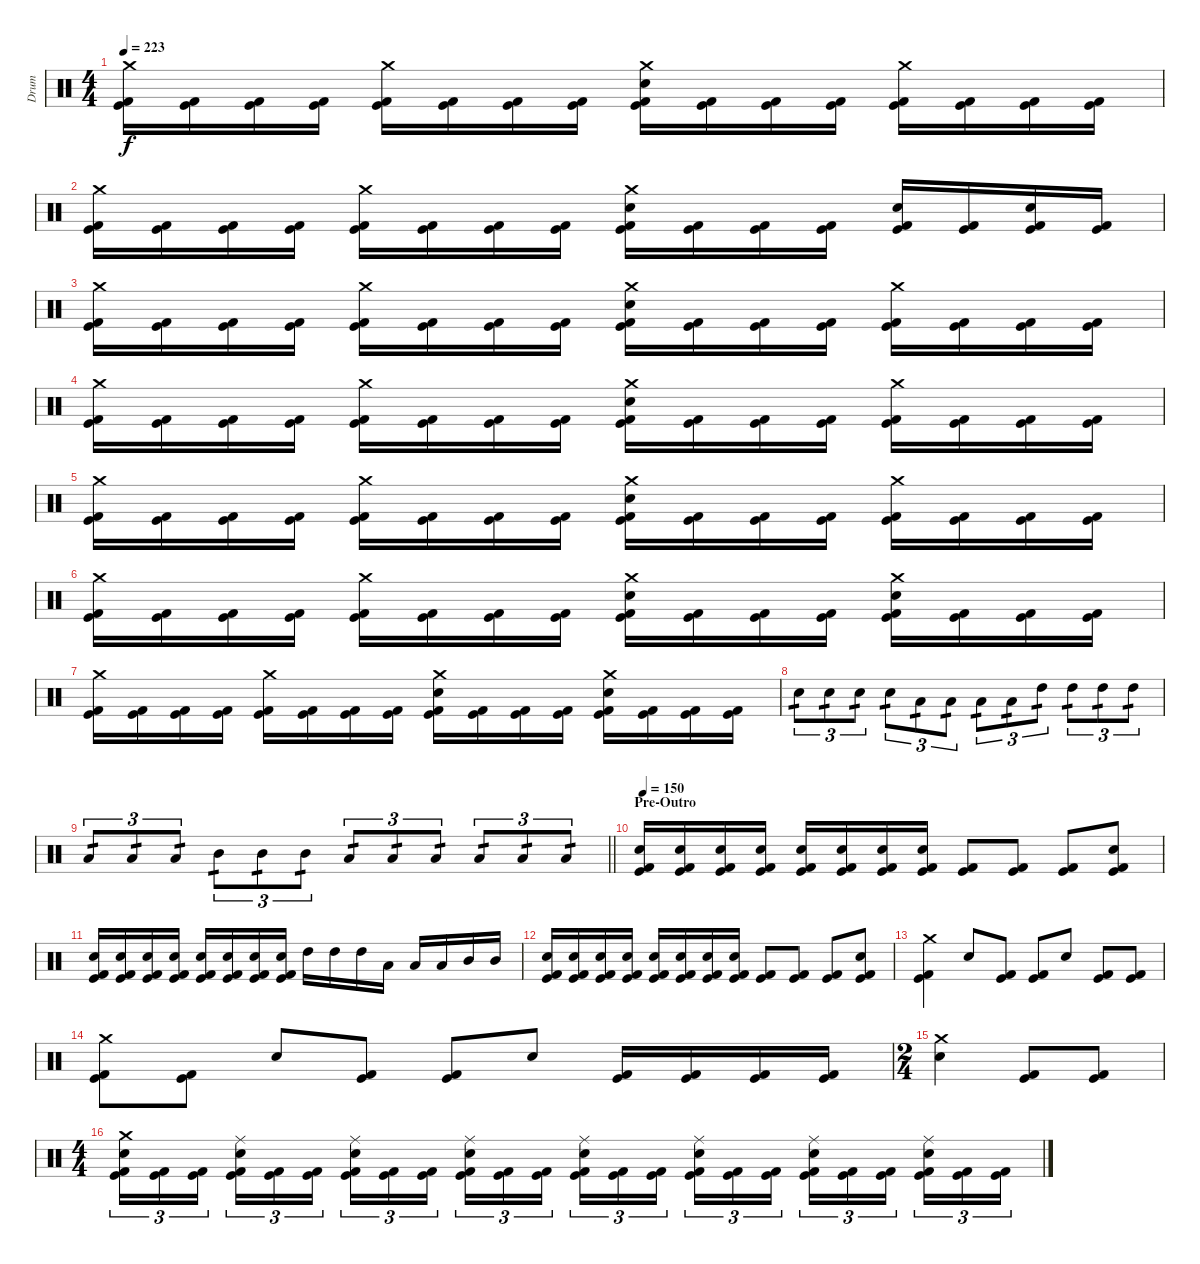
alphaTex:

\track ("Drum" "Drum") {instrument percussion}
\staff {score}
\articulation defaults
\ts (4 4)
\tempo 223
\clef neutral
\ks c
("Crash medium (hit)" "Kick (hit)" "Kick (hit) 2").16{dy f} ("Kick (hit)" "Kick (hit) 2").16 ("Kick (hit)" "Kick (hit) 2").16 ("Kick (hit)" "Kick (hit) 2").16 ("Crash medium (hit)" "Kick (hit)" "Kick (hit) 2").16 ("Kick (hit)" "Kick (hit) 2").16 ("Kick (hit)" "Kick (hit) 2").16 ("Kick (hit)" "Kick (hit) 2").16 ("Crash medium (hit)" "Electric Snare (hit)" "Kick (hit)" "Kick (hit) 2").16 ("Kick (hit)" "Kick (hit) 2").16 ("Kick (hit)" "Kick (hit) 2").16 ("Kick (hit)" "Kick (hit) 2").16 ("Crash medium (hit)" "Kick (hit)" "Kick (hit) 2").16 ("Kick (hit)" "Kick (hit) 2").16 ("Kick (hit)" "Kick (hit) 2").16 ("Kick (hit)" "Kick (hit) 2").16 |
("Crash medium (hit)" "Kick (hit)" "Kick (hit) 2").16 ("Kick (hit)" "Kick (hit) 2").16 ("Kick (hit)" "Kick (hit) 2").16 ("Kick (hit)" "Kick (hit) 2").16 ("Crash medium (hit)" "Kick (hit)" "Kick (hit) 2").16 ("Kick (hit)" "Kick (hit) 2").16 ("Kick (hit)" "Kick (hit) 2").16 ("Kick (hit)" "Kick (hit) 2").16 ("Crash medium (hit)" "Electric Snare (hit)" "Kick (hit)" "Kick (hit) 2").16 ("Kick (hit)" "Kick (hit) 2").16 ("Kick (hit)" "Kick (hit) 2").16 ("Kick (hit)" "Kick (hit) 2").16 ("Electric Snare (hit)" "Kick (hit)" "Kick (hit) 2").16 ("Kick (hit)" "Kick (hit) 2").16 ("Electric Snare (hit)" "Kick (hit)" "Kick (hit) 2").16 ("Kick (hit)" "Kick (hit) 2").16 |
("Crash medium (hit)" "Kick (hit)" "Kick (hit) 2").16 ("Kick (hit)" "Kick (hit) 2").16 ("Kick (hit)" "Kick (hit) 2").16 ("Kick (hit)" "Kick (hit) 2").16 ("Crash medium (hit)" "Kick (hit)" "Kick (hit) 2").16 ("Kick (hit)" "Kick (hit) 2").16 ("Kick (hit)" "Kick (hit) 2").16 ("Kick (hit)" "Kick (hit) 2").16 ("Crash medium (hit)" "Electric Snare (hit)" "Kick (hit)" "Kick (hit) 2").16 ("Kick (hit)" "Kick (hit) 2").16 ("Kick (hit)" "Kick (hit) 2").16 ("Kick (hit)" "Kick (hit) 2").16 ("Crash medium (hit)" "Kick (hit)" "Kick (hit) 2").16 ("Kick (hit)" "Kick (hit) 2").16 ("Kick (hit)" "Kick (hit) 2").16 ("Kick (hit)" "Kick (hit) 2").16 |
("Crash medium (hit)" "Kick (hit)" "Kick (hit) 2").16 ("Kick (hit)" "Kick (hit) 2").16 ("Kick (hit)" "Kick (hit) 2").16 ("Kick (hit)" "Kick (hit) 2").16 ("Crash medium (hit)" "Kick (hit)" "Kick (hit) 2").16 ("Kick (hit)" "Kick (hit) 2").16 ("Kick (hit)" "Kick (hit) 2").16 ("Kick (hit)" "Kick (hit) 2").16 ("Crash medium (hit)" "Electric Snare (hit)" "Kick (hit)" "Kick (hit) 2").16 ("Kick (hit)" "Kick (hit) 2").16 ("Kick (hit)" "Kick (hit) 2").16 ("Kick (hit)" "Kick (hit) 2").16 ("Crash medium (hit)" "Kick (hit)" "Kick (hit) 2").16 ("Kick (hit)" "Kick (hit) 2").16 ("Kick (hit)" "Kick (hit) 2").16 ("Kick (hit)" "Kick (hit) 2").16 |
("Crash medium (hit)" "Kick (hit)" "Kick (hit) 2").16 ("Kick (hit)" "Kick (hit) 2").16 ("Kick (hit)" "Kick (hit) 2").16 ("Kick (hit)" "Kick (hit) 2").16 ("Crash medium (hit)" "Kick (hit)" "Kick (hit) 2").16 ("Kick (hit)" "Kick (hit) 2").16 ("Kick (hit)" "Kick (hit) 2").16 ("Kick (hit)" "Kick (hit) 2").16 ("Crash medium (hit)" "Electric Snare (hit)" "Kick (hit)" "Kick (hit) 2").16 ("Kick (hit)" "Kick (hit) 2").16 ("Kick (hit)" "Kick (hit) 2").16 ("Kick (hit)" "Kick (hit) 2").16 ("Crash medium (hit)" "Kick (hit)" "Kick (hit) 2").16 ("Kick (hit)" "Kick (hit) 2").16 ("Kick (hit)" "Kick (hit) 2").16 ("Kick (hit)" "Kick (hit) 2").16 |
("Crash medium (hit)" "Kick (hit)" "Kick (hit) 2").16 ("Kick (hit)" "Kick (hit) 2").16 ("Kick (hit)" "Kick (hit) 2").16 ("Kick (hit)" "Kick (hit) 2").16 ("Crash medium (hit)" "Kick (hit)" "Kick (hit) 2").16 ("Kick (hit)" "Kick (hit) 2").16 ("Kick (hit)" "Kick (hit) 2").16 ("Kick (hit)" "Kick (hit) 2").16 ("Crash medium (hit)" "Electric Snare (hit)" "Kick (hit)" "Kick (hit) 2").16 ("Kick (hit)" "Kick (hit) 2").16 ("Kick (hit)" "Kick (hit) 2").16 ("Kick (hit)" "Kick (hit) 2").16 ("Crash medium (hit)" "Electric Snare (hit)" "Kick (hit)" "Kick (hit) 2").16 ("Kick (hit)" "Kick (hit) 2").16 ("Kick (hit)" "Kick (hit) 2").16 ("Kick (hit)" "Kick (hit) 2").16 |
("Crash medium (hit)" "Kick (hit)" "Kick (hit) 2").16 ("Kick (hit)" "Kick (hit) 2").16 ("Kick (hit)" "Kick (hit) 2").16 ("Kick (hit)" "Kick (hit) 2").16 ("Crash medium (hit)" "Kick (hit)" "Kick (hit) 2").16 ("Kick (hit)" "Kick (hit) 2").16 ("Kick (hit)" "Kick (hit) 2").16 ("Kick (hit)" "Kick (hit) 2").16 ("Crash medium (hit)" "Electric Snare (hit)" "Kick (hit)" "Kick (hit) 2").16 ("Kick (hit)" "Kick (hit) 2").16 ("Kick (hit)" "Kick (hit) 2").16 ("Kick (hit)" "Kick (hit) 2").16 ("Crash medium (hit)" "Electric Snare (hit)" "Kick (hit)" "Kick (hit) 2").16 ("Kick (hit)" "Kick (hit) 2").16 ("Kick (hit)" "Kick (hit) 2").16 ("Kick (hit)" "Kick (hit) 2").16 |
"Electric Snare (hit)".8{tu (3 2) tp 1} "Electric Snare (hit)".8{tu (3 2) tp 1} "Electric Snare (hit)".8{tu (3 2) tp 1} "Electric Snare (hit)".8{tu (3 2) tp 1} "Low Tom (hit)".8{tu (3 2) tp 1} "Low Tom (hit)".8{tu (3 2) tp 1} "Low Tom (hit)".8{tu (3 2) tp 1} "Low Tom (hit)".8{tu (3 2) tp 1} "High Tom (hit)".8{tu (3 2) tp 1} "High Tom (hit)".8{tu (3 2) tp 1} "High Tom (hit)".8{tu (3 2) tp 1} "High Tom (hit)".8{tu (3 2) tp 1} |
\barLineRight lightlight "Low Tom (hit)".8{tu (3 2) tp 1} "Low Tom (hit)".8{tu (3 2) tp 1} "Low Tom (hit)".8{tu (3 2) tp 1} "Mid Tom (hit)".8{tu (3 2) tp 1} "Mid Tom (hit)".8{tu (3 2) tp 1} "Mid Tom (hit)".8{tu (3 2) tp 1} "Low Tom (hit)".8{tu (3 2) tp 1} "Low Tom (hit)".8{tu (3 2) tp 1} "Low Tom (hit)".8{tu (3 2) tp 1} "Low Tom (hit)".8{tu (3 2) tp 1} "Low Tom (hit)".8{tu (3 2) tp 1} "Low Tom (hit)".8{tu (3 2) tp 1}
|
\section ("" "Pre-Outro")
\tempo 150
("Electric Snare (hit)" "Kick (hit)" "Kick (hit) 2").16 ("Electric Snare (hit)" "Kick (hit)" "Kick (hit) 2").16 ("Electric Snare (hit)" "Kick (hit)" "Kick (hit) 2").16 ("Electric Snare (hit)" "Kick (hit)" "Kick (hit) 2").16 ("Electric Snare (hit)" "Kick (hit)" "Kick (hit) 2").16 ("Electric Snare (hit)" "Kick (hit)" "Kick (hit) 2").16 ("Electric Snare (hit)" "Kick (hit)" "Kick (hit) 2").16 ("Electric Snare (hit)" "Kick (hit)" "Kick (hit) 2").16 ("Kick (hit)" "Kick (hit) 2").8 ("Kick (hit)" "Kick (hit) 2").8 ("Kick (hit)" "Kick (hit) 2").8 ("Electric Snare (hit)" "Kick (hit)" "Kick (hit) 2").8 |
("Electric Snare (hit)" "Kick (hit)" "Kick (hit) 2").16 ("Electric Snare (hit)" "Kick (hit)" "Kick (hit) 2").16 ("Electric Snare (hit)" "Kick (hit)" "Kick (hit) 2").16 ("Electric Snare (hit)" "Kick (hit)" "Kick (hit) 2").16 ("Electric Snare (hit)" "Kick (hit)" "Kick (hit) 2").16 ("Electric Snare (hit)" "Kick (hit)" "Kick (hit) 2").16 ("Electric Snare (hit)" "Kick (hit)" "Kick (hit) 2").16 ("Electric Snare (hit)" "Kick (hit)" "Kick (hit) 2").16 "High Tom (hit)".16 "High Tom (hit)".16 "High Tom (hit)".16 "Low Tom (hit)".16 "Low Tom (hit)".16 "Low Tom (hit)".16 "Mid Tom (hit)".16 "Mid Tom (hit)".16 |
("Electric Snare (hit)" "Kick (hit)" "Kick (hit) 2").16 ("Electric Snare (hit)" "Kick (hit)" "Kick (hit) 2").16 ("Electric Snare (hit)" "Kick (hit)" "Kick (hit) 2").16 ("Electric Snare (hit)" "Kick (hit)" "Kick (hit) 2").16 ("Electric Snare (hit)" "Kick (hit)" "Kick (hit) 2").16 ("Electric Snare (hit)" "Kick (hit)" "Kick (hit) 2").16 ("Electric Snare (hit)" "Kick (hit)" "Kick (hit) 2").16 ("Electric Snare (hit)" "Kick (hit)" "Kick (hit) 2").16 ("Kick (hit)" "Kick (hit) 2").8 ("Kick (hit)" "Kick (hit) 2").8 ("Kick (hit)" "Kick (hit) 2").8 ("Electric Snare (hit)" "Kick (hit)" "Kick (hit) 2").8 |
("Crash medium (hit)" "Kick (hit)" "Kick (hit) 2").4 "Electric Snare (hit)".8 ("Kick (hit)" "Kick (hit) 2").8 ("Kick (hit)" "Kick (hit) 2").8 "Electric Snare (hit)".8 ("Kick (hit)" "Kick (hit) 2").8 ("Kick (hit)" "Kick (hit) 2").8 |
("Crash medium (hit)" "Kick (hit)" "Kick (hit) 2").8 ("Kick (hit)" "Kick (hit) 2").8 "Electric Snare (hit)".8 ("Kick (hit)" "Kick (hit) 2").8 ("Kick (hit)" "Kick (hit) 2").8 "Electric Snare (hit)".8 ("Kick (hit)" "Kick (hit) 2").16 ("Kick (hit)" "Kick (hit) 2").16 ("Kick (hit)" "Kick (hit) 2").16 ("Kick (hit)" "Kick (hit) 2").16 |
\ts (2 4)
("Crash medium (hit)" "Electric Snare (hit)").4 ("Kick (hit)" "Kick (hit) 2").8 ("Kick (hit)" "Kick (hit) 2").8 |
\ts (4 4)
("Crash medium (hit)" "Electric Snare (hit)" "Kick (hit)" "Kick (hit) 2").16{tu (3 2)} ("Kick (hit)" "Kick (hit) 2").16{tu (3 2)} ("Kick (hit)" "Kick (hit) 2").16{tu (3 2) beam splitsecondary} ("Ride (middle)" "Electric Snare (hit)" "Kick (hit)" "Kick (hit) 2").16{tu (3 2)} ("Kick (hit)" "Kick (hit) 2").16{tu (3 2)} ("Kick (hit)" "Kick (hit) 2").16{tu (3 2)} ("Ride (middle)" "Electric Snare (hit)" "Kick (hit)" "Kick (hit) 2").16{tu (3 2)} ("Kick (hit)" "Kick (hit) 2").16{tu (3 2)} ("Kick (hit)" "Kick (hit) 2").16{tu (3 2) beam splitsecondary} ("Ride (middle)" "Electric Snare (hit)" "Kick (hit)" "Kick (hit) 2").16{tu (3 2)} ("Kick (hit)" "Kick (hit) 2").16{tu (3 2)} ("Kick (hit)" "Kick (hit) 2").16{tu (3 2)} ("Ride (middle)" "Electric Snare (hit)" "Kick (hit)" "Kick (hit) 2").16{tu (3 2)} ("Kick (hit)" "Kick (hit) 2").16{tu (3 2)} ("Kick (hit)" "Kick (hit) 2").16{tu (3 2) beam splitsecondary} ("Ride (middle)" "Electric Snare (hit)" "Kick (hit)" "Kick (hit) 2").16{tu (3 2)} ("Kick (hit)" "Kick (hit) 2").16{tu (3 2)} ("Kick (hit)" "Kick (hit) 2").16{tu (3 2)} ("Ride (middle)" "Electric Snare (hit)" "Kick (hit)" "Kick (hit) 2").16{tu (3 2)} ("Kick (hit)" "Kick (hit) 2").16{tu (3 2)} ("Kick (hit)" "Kick (hit) 2").16{tu (3 2) beam splitsecondary} ("Ride (middle)" "Electric Snare (hit)" "Kick (hit)" "Kick (hit) 2").16{tu (3 2)} ("Kick (hit)" "Kick (hit) 2").16{tu (3 2)} ("Kick (hit)" "Kick (hit) 2").16{tu (3 2)}
